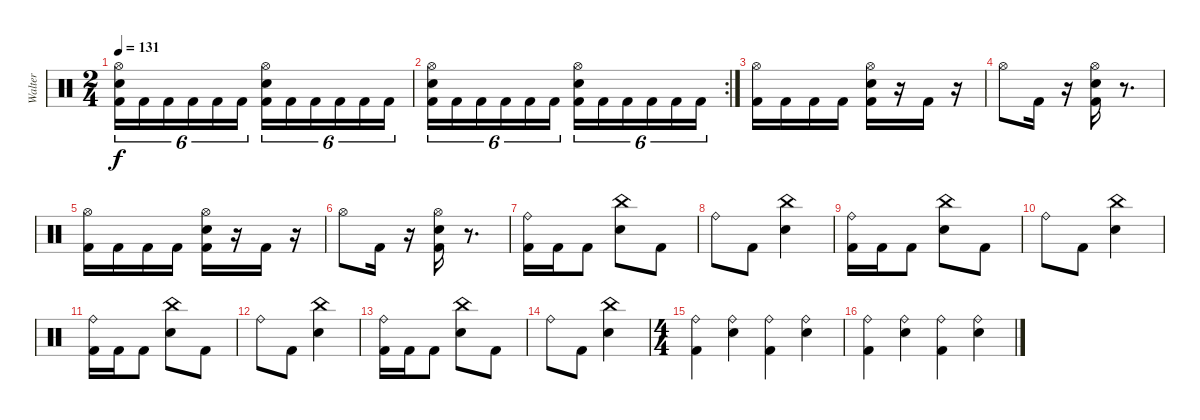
\track ("Walter" "Walter") {instrument percussion}
\staff {score}
\articulation defaults
\ts (2 4)
\tempo 131
\clef neutral
\ks c
("Hi-Hat (open)" "Kick (hit) 2" "Electric Snare (hit)").16{tu (6 4) dy f} "Kick (hit) 2".16{tu (6 4)} "Kick (hit) 2".16{tu (6 4)} "Kick (hit) 2".16{tu (6 4)} "Kick (hit) 2".16{tu (6 4)} "Kick (hit) 2".16{tu (6 4)} ("Hi-Hat (open)" "Kick (hit) 2" "Electric Snare (hit)").16{tu (6 4)} "Kick (hit) 2".16{tu (6 4)} "Kick (hit) 2".16{tu (6 4)} "Kick (hit) 2".16{tu (6 4)} "Kick (hit) 2".16{tu (6 4)} "Kick (hit) 2".16{tu (6 4)} |
\rc 2
("Hi-Hat (open)" "Kick (hit) 2" "Electric Snare (hit)").16{tu (6 4)} "Kick (hit) 2".16{tu (6 4)} "Kick (hit) 2".16{tu (6 4)} "Kick (hit) 2".16{tu (6 4)} "Kick (hit) 2".16{tu (6 4)} "Kick (hit) 2".16{tu (6 4)} ("Hi-Hat (open)" "Kick (hit) 2" "Electric Snare (hit)").16{tu (6 4)} "Kick (hit) 2".16{tu (6 4)} "Kick (hit) 2".16{tu (6 4)} "Kick (hit) 2".16{tu (6 4)} "Kick (hit) 2".16{tu (6 4)} "Kick (hit) 2".16{tu (6 4)} |
("Hi-Hat (open)" "Kick (hit) 2").16 "Kick (hit) 2".16 "Kick (hit) 2".16 "Kick (hit) 2".16 ("Hi-Hat (open)" "Kick (hit) 2" "Electric Snare (hit)").16 r.16 "Kick (hit) 2".16 r.16 |
"Hi-Hat (open)".8 "Kick (hit) 2".16 r.16 ("Hi-Hat (open)" "Kick (hit) 2" "Electric Snare (hit)").16 r.8{d} |
("Hi-Hat (open)" "Kick (hit) 2").16 "Kick (hit) 2".16 "Kick (hit) 2".16 "Kick (hit) 2".16 ("Hi-Hat (open)" "Kick (hit) 2" "Electric Snare (hit)").16 r.16 "Kick (hit) 2".16 r.16 |
"Hi-Hat (open)".8 "Kick (hit) 2".16 r.16 ("Hi-Hat (open)" "Kick (hit) 2" "Electric Snare (hit)").16 r.8{d} |
("Ride (bell)" "Kick (hit) 2").16 "Kick (hit) 2".16 "Kick (hit) 2".8 ("Electric Snare (hit)" "China (hit)").8 "Kick (hit) 2".8 |
"Ride (bell)".8 "Kick (hit) 2".8 ("Electric Snare (hit)" "China (hit)").4 |
("Ride (bell)" "Kick (hit) 2").16 "Kick (hit) 2".16 "Kick (hit) 2".8 ("Electric Snare (hit)" "China (hit)").8 "Kick (hit) 2".8 |
"Ride (bell)".8 "Kick (hit) 2".8 ("Electric Snare (hit)" "China (hit)").4 |
("Ride (bell)" "Kick (hit) 2").16 "Kick (hit) 2".16 "Kick (hit) 2".8 ("Electric Snare (hit)" "China (hit)").8 "Kick (hit) 2".8 |
"Ride (bell)".8 "Kick (hit) 2".8 ("Electric Snare (hit)" "China (hit)").4 |
("Ride (bell)" "Kick (hit) 2").16 "Kick (hit) 2".16 "Kick (hit) 2".8 ("Electric Snare (hit)" "China (hit)").8 "Kick (hit) 2".8 |
"Ride (bell)".8 "Kick (hit) 2".8 ("Electric Snare (hit)" "China (hit)").4 |
\ts (4 4)
("Ride (bell)" "Kick (hit) 2").4 ("Ride (bell)" "Electric Snare (hit)").4 ("Ride (bell)" "Kick (hit) 2").4 ("Ride (bell)" "Electric Snare (hit)").4 |
("Ride (bell)" "Kick (hit) 2").4 ("Ride (bell)" "Electric Snare (hit)").4 ("Ride (bell)" "Kick (hit) 2").4 ("Ride (bell)" "Electric Snare (hit)").4
